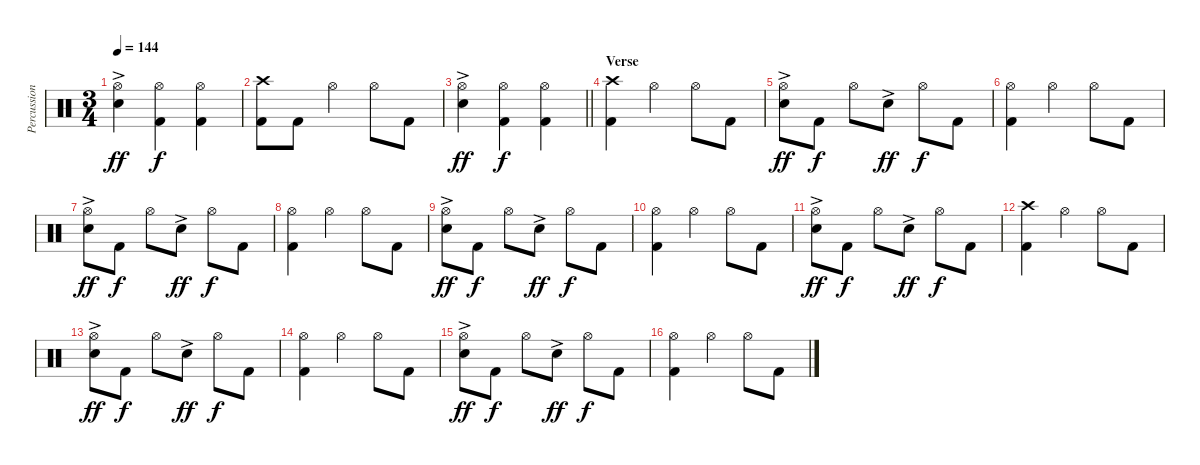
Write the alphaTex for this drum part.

\track ("Percussion" "Percussion") {instrument percussion}
\staff {score}
\articulation defaults
\ts (3 4)
\tempo 144
\clef neutral
\ks c
("Hi-Hat (open)" "Electric Snare (hit)"{ac}).4{dy ff} ("Hi-Hat (open)" "Kick (hit) 2").4{dy f} ("Hi-Hat (open)" "Kick (hit) 2").4 |
("Crash high (hit)" "Kick (hit) 2").8 "Kick (hit) 2".8 "Hi-Hat (open)".4 "Hi-Hat (open)".8 "Kick (hit) 2".8 |
\barLineRight lightlight
("Hi-Hat (open)" "Electric Snare (hit)"{ac}).4{dy ff} ("Hi-Hat (open)" "Kick (hit) 2").4{dy f} ("Hi-Hat (open)" "Kick (hit) 2").4 |
\section ("" "Verse")
("Crash high (hit)" "Kick (hit) 2").4 "Hi-Hat (open)".4 "Hi-Hat (open)".8 "Kick (hit) 2".8 |
("Hi-Hat (open)" "Electric Snare (hit)"{ac}).8{dy ff} "Kick (hit) 2".8{dy f} "Hi-Hat (open)".8 "Electric Snare (hit)"{ac}.8{dy ff} "Hi-Hat (open)".8{dy f} "Kick (hit) 2".8 |
("Hi-Hat (open)" "Kick (hit) 2").4 "Hi-Hat (open)".4 "Hi-Hat (open)".8 "Kick (hit) 2".8 |
("Hi-Hat (open)" "Electric Snare (hit)"{ac}).8{dy ff} "Kick (hit) 2".8{dy f} "Hi-Hat (open)".8 "Electric Snare (hit)"{ac}.8{dy ff} "Hi-Hat (open)".8{dy f} "Kick (hit) 2".8 |
("Hi-Hat (open)" "Kick (hit) 2").4 "Hi-Hat (open)".4 "Hi-Hat (open)".8 "Kick (hit) 2".8 |
("Hi-Hat (open)" "Electric Snare (hit)"{ac}).8{dy ff} "Kick (hit) 2".8{dy f} "Hi-Hat (open)".8 "Electric Snare (hit)"{ac}.8{dy ff} "Hi-Hat (open)".8{dy f} "Kick (hit) 2".8 |
("Hi-Hat (open)" "Kick (hit) 2").4 "Hi-Hat (open)".4 "Hi-Hat (open)".8 "Kick (hit) 2".8 |
("Hi-Hat (open)" "Electric Snare (hit)"{ac}).8{dy ff} "Kick (hit) 2".8{dy f} "Hi-Hat (open)".8 "Electric Snare (hit)"{ac}.8{dy ff} "Hi-Hat (open)".8{dy f} "Kick (hit) 2".8 |
("Crash high (hit)" "Kick (hit) 2").4 "Hi-Hat (open)".4 "Hi-Hat (open)".8 "Kick (hit) 2".8 |
("Hi-Hat (open)" "Electric Snare (hit)"{ac}).8{dy ff} "Kick (hit) 2".8{dy f} "Hi-Hat (open)".8 "Electric Snare (hit)"{ac}.8{dy ff} "Hi-Hat (open)".8{dy f} "Kick (hit) 2".8 |
("Hi-Hat (open)" "Kick (hit) 2").4 "Hi-Hat (open)".4 "Hi-Hat (open)".8 "Kick (hit) 2".8 |
("Hi-Hat (open)" "Electric Snare (hit)"{ac}).8{dy ff} "Kick (hit) 2".8{dy f} "Hi-Hat (open)".8 "Electric Snare (hit)"{ac}.8{dy ff} "Hi-Hat (open)".8{dy f} "Kick (hit) 2".8 |
("Hi-Hat (open)" "Kick (hit) 2").4 "Hi-Hat (open)".4 "Hi-Hat (open)".8 "Kick (hit) 2".8
